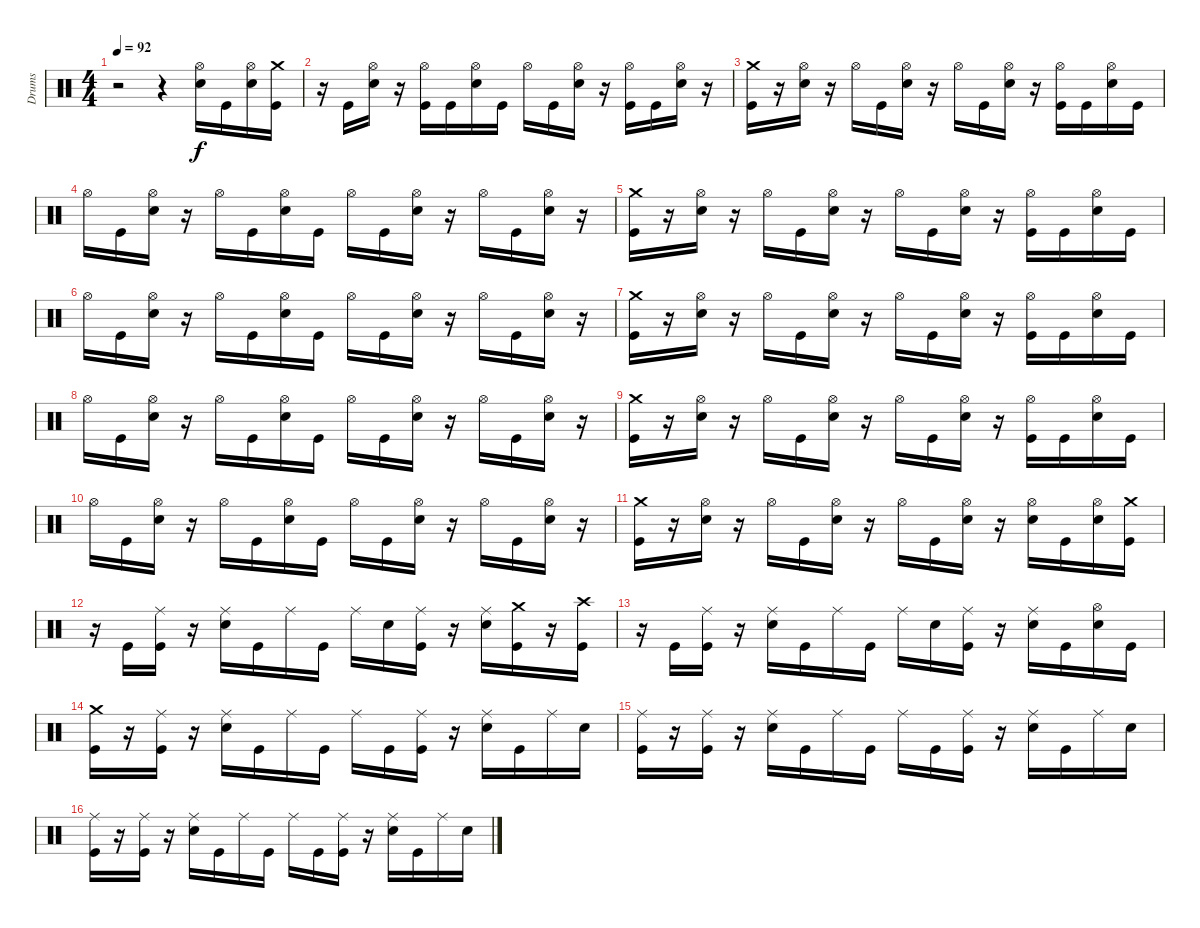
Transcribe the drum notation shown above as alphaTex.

\track ("Drums" "Drums") {instrument percussion}
\staff {score}
\articulation defaults
\ts (4 4)
\tempo 92
\clef neutral
\ks c
r.2{dy f} r.4 ("Hi-Hat (open)" "Snare (hit) 2").16 "Kick (hit)".16 ("Hi-Hat (open)" "Snare (hit) 2").16 ("Crash medium (hit)" "Kick (hit)").16 |
r.16 "Kick (hit)".16 ("Hi-Hat (open)" "Snare (hit) 2").16 r.16 ("Hi-Hat (open)" "Kick (hit)").16 "Kick (hit)".16 ("Hi-Hat (open)" "Snare (hit) 2").16 "Kick (hit)".16 "Hi-Hat (open)".16 "Kick (hit)".16 ("Hi-Hat (open)" "Snare (hit) 2").16 r.16 ("Hi-Hat (open)" "Kick (hit)").16 "Kick (hit)".16 ("Hi-Hat (open)" "Snare (hit) 2").16 r.16 |
("Crash medium (hit)" "Kick (hit)").16 r.16 ("Hi-Hat (open)" "Snare (hit) 2").16 r.16 "Hi-Hat (open)".16 "Kick (hit)".16 ("Hi-Hat (open)" "Snare (hit) 2").16 r.16 "Hi-Hat (open)".16 "Kick (hit)".16 ("Hi-Hat (open)" "Snare (hit) 2").16 r.16 ("Hi-Hat (open)" "Kick (hit)").16 "Kick (hit)".16 ("Hi-Hat (open)" "Snare (hit) 2").16 "Kick (hit)".16 |
"Hi-Hat (open)".16 "Kick (hit)".16 ("Hi-Hat (open)" "Snare (hit) 2").16 r.16 "Hi-Hat (open)".16 "Kick (hit)".16 ("Hi-Hat (open)" "Snare (hit) 2").16 "Kick (hit)".16 "Hi-Hat (open)".16 "Kick (hit)".16 ("Hi-Hat (open)" "Snare (hit) 2").16 r.16 "Hi-Hat (open)".16 "Kick (hit)".16 ("Hi-Hat (open)" "Snare (hit) 2").16 r.16 |
("Crash medium (hit)" "Kick (hit)").16 r.16 ("Hi-Hat (open)" "Snare (hit) 2").16 r.16 "Hi-Hat (open)".16 "Kick (hit)".16 ("Hi-Hat (open)" "Snare (hit) 2").16 r.16 "Hi-Hat (open)".16 "Kick (hit)".16 ("Hi-Hat (open)" "Snare (hit) 2").16 r.16 ("Hi-Hat (open)" "Kick (hit)").16 "Kick (hit)".16 ("Hi-Hat (open)" "Snare (hit) 2").16 "Kick (hit)".16 |
"Hi-Hat (open)".16 "Kick (hit)".16 ("Hi-Hat (open)" "Snare (hit) 2").16 r.16 "Hi-Hat (open)".16 "Kick (hit)".16 ("Hi-Hat (open)" "Snare (hit) 2").16 "Kick (hit)".16 "Hi-Hat (open)".16 "Kick (hit)".16 ("Hi-Hat (open)" "Snare (hit) 2").16 r.16 "Hi-Hat (open)".16 "Kick (hit)".16 ("Hi-Hat (open)" "Snare (hit) 2").16 r.16 |
("Crash medium (hit)" "Kick (hit)").16 r.16 ("Hi-Hat (open)" "Snare (hit) 2").16 r.16 "Hi-Hat (open)".16 "Kick (hit)".16 ("Hi-Hat (open)" "Snare (hit) 2").16 r.16 "Hi-Hat (open)".16 "Kick (hit)".16 ("Hi-Hat (open)" "Snare (hit) 2").16 r.16 ("Hi-Hat (open)" "Kick (hit)").16 "Kick (hit)".16 ("Hi-Hat (open)" "Snare (hit) 2").16 "Kick (hit)".16 |
"Hi-Hat (open)".16 "Kick (hit)".16 ("Hi-Hat (open)" "Snare (hit) 2").16 r.16 "Hi-Hat (open)".16 "Kick (hit)".16 ("Hi-Hat (open)" "Snare (hit) 2").16 "Kick (hit)".16 "Hi-Hat (open)".16 "Kick (hit)".16 ("Hi-Hat (open)" "Snare (hit) 2").16 r.16 "Hi-Hat (open)".16 "Kick (hit)".16 ("Hi-Hat (open)" "Snare (hit) 2").16 r.16 |
("Crash medium (hit)" "Kick (hit)").16 r.16 ("Hi-Hat (open)" "Snare (hit) 2").16 r.16 "Hi-Hat (open)".16 "Kick (hit)".16 ("Hi-Hat (open)" "Snare (hit) 2").16 r.16 "Hi-Hat (open)".16 "Kick (hit)".16 ("Hi-Hat (open)" "Snare (hit) 2").16 r.16 ("Hi-Hat (open)" "Kick (hit)").16 "Kick (hit)".16 ("Hi-Hat (open)" "Snare (hit) 2").16 "Kick (hit)".16 |
"Hi-Hat (open)".16 "Kick (hit)".16 ("Hi-Hat (open)" "Snare (hit) 2").16 r.16 "Hi-Hat (open)".16 "Kick (hit)".16 ("Hi-Hat (open)" "Snare (hit) 2").16 "Kick (hit)".16 "Hi-Hat (open)".16 "Kick (hit)".16 ("Hi-Hat (open)" "Snare (hit) 2").16 r.16 "Hi-Hat (open)".16 "Kick (hit)".16 ("Hi-Hat (open)" "Snare (hit) 2").16 r.16 |
("Crash medium (hit)" "Kick (hit)").16 r.16 ("Hi-Hat (open)" "Snare (hit) 2").16 r.16 "Hi-Hat (open)".16 "Kick (hit)".16 ("Hi-Hat (open)" "Snare (hit) 2").16 r.16 "Hi-Hat (open)".16 "Kick (hit)".16 ("Hi-Hat (open)" "Snare (hit) 2").16 r.16 ("Hi-Hat (open)" "Snare (hit) 2").16 "Kick (hit)".16 ("Hi-Hat (open)" "Snare (hit) 2").16 ("Crash medium (hit)" "Kick (hit)").16 |
r.16 "Kick (hit)".16 ("Ride (middle)" "Kick (hit)").16 r.16 ("Ride (middle)" "Snare (hit) 2").16 "Kick (hit)".16 "Ride (middle)".16 "Kick (hit)".16 "Ride (middle)".16 "Snare (hit) 2".16 ("Ride (middle)" "Kick (hit)").16 r.16 ("Ride (middle)" "Snare (hit) 2").16 ("Crash medium (hit)" "Kick (hit)").16 r.16 ("Crash high (hit)" "Kick (hit)").16 |
r.16 "Kick (hit)".16 ("Ride (middle)" "Kick (hit)").16 r.16 ("Ride (middle)" "Snare (hit) 2").16 "Kick (hit)".16 "Ride (middle)".16 "Kick (hit)".16 "Ride (middle)".16 "Snare (hit) 2".16 ("Ride (middle)" "Kick (hit)").16 r.16 ("Ride (middle)" "Snare (hit) 2").16 "Kick (hit)".16 ("Hi-Hat (open)" "Snare (hit) 2").16 "Kick (hit)".16 |
("Crash medium (hit)" "Kick (hit)").16 r.16 ("Ride (middle)" "Kick (hit)").16 r.16 ("Ride (middle)" "Snare (hit) 2").16 "Kick (hit)".16 "Ride (middle)".16 "Kick (hit)".16 "Ride (middle)".16 "Kick (hit)".16 ("Ride (middle)" "Kick (hit)").16 r.16 ("Ride (middle)" "Snare (hit) 2").16 "Kick (hit)".16 "Ride (middle)".16 "Snare (hit) 2".16 |
("Ride (middle)" "Kick (hit)").16 r.16 ("Ride (middle)" "Kick (hit)").16 r.16 ("Ride (middle)" "Snare (hit) 2").16 "Kick (hit)".16 "Ride (middle)".16 "Kick (hit)".16 "Ride (middle)".16 "Kick (hit)".16 ("Ride (middle)" "Kick (hit)").16 r.16 ("Ride (middle)" "Snare (hit) 2").16 "Kick (hit)".16 "Ride (middle)".16 "Snare (hit) 2".16 |
("Ride (middle)" "Kick (hit)").16 r.16 ("Ride (middle)" "Kick (hit)").16 r.16 ("Ride (middle)" "Snare (hit) 2").16 "Kick (hit)".16 "Ride (middle)".16 "Kick (hit)".16 "Ride (middle)".16 "Kick (hit)".16 ("Ride (middle)" "Kick (hit)").16 r.16 ("Ride (middle)" "Snare (hit) 2").16 "Kick (hit)".16 "Ride (middle)".16 "Snare (hit) 2".16
